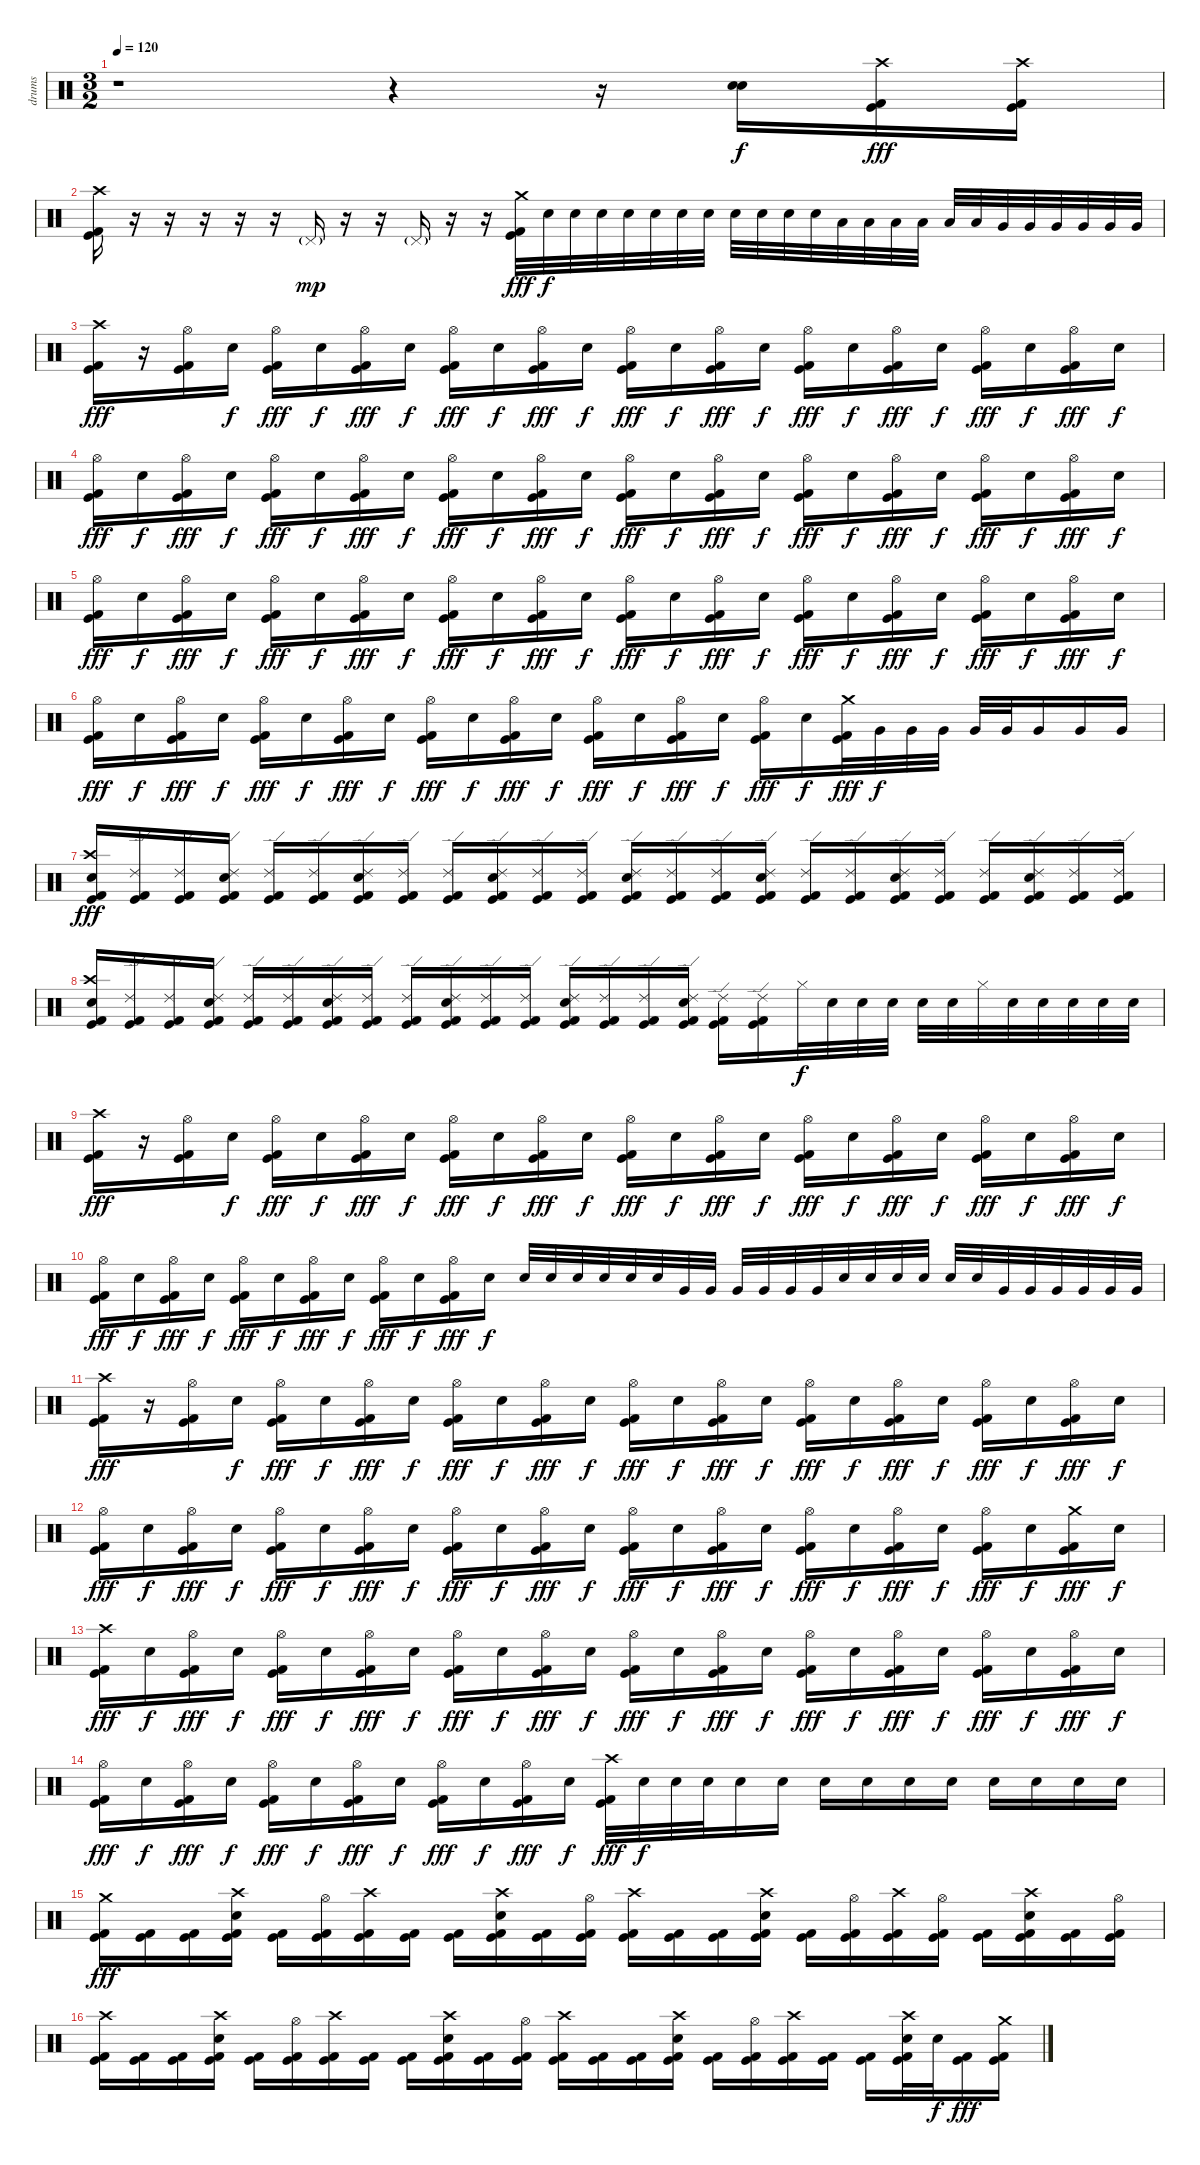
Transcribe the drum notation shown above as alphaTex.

\track ("drums" "drums") {instrument percussion}
\staff {score}
\articulation defaults
\ts (3 2)
\tempo 120
\clef neutral
\ks c
r.1{dy f} r.4 r.16 ("Electric Snare (hit)" "Electric Snare (hit)").16{bu 60} ("Crash high (hit)" "Kick (hit)" "Kick (hit) 2").16{dy fff} ("Crash high (hit)" "Kick (hit)" "Kick (hit) 2").16 |
("Crash high (hit)" "Kick (hit)" "Kick (hit) 2").16 r.16 r.16 r.16 r.16 r.16 "Pedal Hi-Hat (hit)"{g}.16{dy mp} r.16 r.16 "Pedal Hi-Hat (hit)"{g}.16 r.16 r.16 ("Crash medium (hit)" "Kick (hit)" "Kick (hit) 2").32{dy fff} "Electric Snare (hit)".32{dy f} "Electric Snare (hit)".32 "Electric Snare (hit)".32 "Electric Snare (hit)".32 "Electric Snare (hit)".32 "Electric Snare (hit)".32 "Electric Snare (hit)".32 "Electric Snare (hit)".32 "Electric Snare (hit)".32 "Electric Snare (hit)".32 "Electric Snare (hit)".32 "Low Tom (hit)".32 "Low Tom (hit)".32 "Low Tom (hit)".32 "Low Tom (hit)".32 "Low Tom (hit)".32 "Low Tom (hit)".32 "Very Low Tom (hit)".32 "Very Low Tom (hit)".32 "Very Low Tom (hit)".32 "Very Low Tom (hit)".32 "Very Low Tom (hit)".32 "Very Low Tom (hit)".32 |
("Crash high (hit)" "Kick (hit)" "Kick (hit) 2").16{dy fff} r.16 ("Hi-Hat (open)" "Kick (hit)" "Kick (hit) 2").16 "Electric Snare (hit)".16{dy f} ("Hi-Hat (open)" "Kick (hit)" "Kick (hit) 2").16{dy fff} "Electric Snare (hit)".16{dy f} ("Hi-Hat (open)" "Kick (hit)" "Kick (hit) 2").16{dy fff} "Electric Snare (hit)".16{dy f} ("Hi-Hat (open)" "Kick (hit)" "Kick (hit) 2").16{dy fff} "Electric Snare (hit)".16{dy f} ("Hi-Hat (open)" "Kick (hit)" "Kick (hit) 2").16{dy fff} "Electric Snare (hit)".16{dy f} ("Hi-Hat (open)" "Kick (hit)" "Kick (hit) 2").16{dy fff} "Electric Snare (hit)".16{dy f} ("Hi-Hat (open)" "Kick (hit)" "Kick (hit) 2").16{dy fff} "Electric Snare (hit)".16{dy f} ("Hi-Hat (open)" "Kick (hit)" "Kick (hit) 2").16{dy fff} "Electric Snare (hit)".16{dy f} ("Hi-Hat (open)" "Kick (hit)" "Kick (hit) 2").16{dy fff} "Electric Snare (hit)".16{dy f} ("Hi-Hat (open)" "Kick (hit)" "Kick (hit) 2").16{dy fff} "Electric Snare (hit)".16{dy f} ("Hi-Hat (open)" "Kick (hit)" "Kick (hit) 2").16{dy fff} "Electric Snare (hit)".16{dy f} |
("Hi-Hat (open)" "Kick (hit)" "Kick (hit) 2").16{dy fff} "Electric Snare (hit)".16{dy f} ("Hi-Hat (open)" "Kick (hit)" "Kick (hit) 2").16{dy fff} "Electric Snare (hit)".16{dy f} ("Hi-Hat (open)" "Kick (hit)" "Kick (hit) 2").16{dy fff} "Electric Snare (hit)".16{dy f} ("Hi-Hat (open)" "Kick (hit)" "Kick (hit) 2").16{dy fff} "Electric Snare (hit)".16{dy f} ("Hi-Hat (open)" "Kick (hit)" "Kick (hit) 2").16{dy fff} "Electric Snare (hit)".16{dy f} ("Hi-Hat (open)" "Kick (hit)" "Kick (hit) 2").16{dy fff} "Electric Snare (hit)".16{dy f} ("Hi-Hat (open)" "Kick (hit)" "Kick (hit) 2").16{dy fff} "Electric Snare (hit)".16{dy f} ("Hi-Hat (open)" "Kick (hit)" "Kick (hit) 2").16{dy fff} "Electric Snare (hit)".16{dy f} ("Hi-Hat (open)" "Kick (hit)" "Kick (hit) 2").16{dy fff} "Electric Snare (hit)".16{dy f} ("Hi-Hat (open)" "Kick (hit)" "Kick (hit) 2").16{dy fff} "Electric Snare (hit)".16{dy f} ("Hi-Hat (open)" "Kick (hit)" "Kick (hit) 2").16{dy fff} "Electric Snare (hit)".16{dy f} ("Hi-Hat (open)" "Kick (hit)" "Kick (hit) 2").16{dy fff} "Electric Snare (hit)".16{dy f} |
("Hi-Hat (open)" "Kick (hit)" "Kick (hit) 2").16{dy fff} "Electric Snare (hit)".16{dy f} ("Hi-Hat (open)" "Kick (hit)" "Kick (hit) 2").16{dy fff} "Electric Snare (hit)".16{dy f} ("Hi-Hat (open)" "Kick (hit)" "Kick (hit) 2").16{dy fff} "Electric Snare (hit)".16{dy f} ("Hi-Hat (open)" "Kick (hit)" "Kick (hit) 2").16{dy fff} "Electric Snare (hit)".16{dy f} ("Hi-Hat (open)" "Kick (hit)" "Kick (hit) 2").16{dy fff} "Electric Snare (hit)".16{dy f} ("Hi-Hat (open)" "Kick (hit)" "Kick (hit) 2").16{dy fff} "Electric Snare (hit)".16{dy f} ("Hi-Hat (open)" "Kick (hit)" "Kick (hit) 2").16{dy fff} "Electric Snare (hit)".16{dy f} ("Hi-Hat (open)" "Kick (hit)" "Kick (hit) 2").16{dy fff} "Electric Snare (hit)".16{dy f} ("Hi-Hat (open)" "Kick (hit)" "Kick (hit) 2").16{dy fff} "Electric Snare (hit)".16{dy f} ("Hi-Hat (open)" "Kick (hit)" "Kick (hit) 2").16{dy fff} "Electric Snare (hit)".16{dy f} ("Hi-Hat (open)" "Kick (hit)" "Kick (hit) 2").16{dy fff} "Electric Snare (hit)".16{dy f} ("Hi-Hat (open)" "Kick (hit)" "Kick (hit) 2").16{dy fff} "Electric Snare (hit)".16{dy f} |
("Hi-Hat (open)" "Kick (hit)" "Kick (hit) 2").16{dy fff} "Electric Snare (hit)".16{dy f} ("Hi-Hat (open)" "Kick (hit)" "Kick (hit) 2").16{dy fff} "Electric Snare (hit)".16{dy f} ("Hi-Hat (open)" "Kick (hit)" "Kick (hit) 2").16{dy fff} "Electric Snare (hit)".16{dy f} ("Hi-Hat (open)" "Kick (hit)" "Kick (hit) 2").16{dy fff} "Electric Snare (hit)".16{dy f} ("Hi-Hat (open)" "Kick (hit)" "Kick (hit) 2").16{dy fff} "Electric Snare (hit)".16{dy f} ("Hi-Hat (open)" "Kick (hit)" "Kick (hit) 2").16{dy fff} "Electric Snare (hit)".16{dy f} ("Hi-Hat (open)" "Kick (hit)" "Kick (hit) 2").16{dy fff} "Electric Snare (hit)".16{dy f} ("Hi-Hat (open)" "Kick (hit)" "Kick (hit) 2").16{dy fff} "Electric Snare (hit)".16{dy f} ("Hi-Hat (open)" "Kick (hit)" "Kick (hit) 2").16{dy fff} "Electric Snare (hit)".16{dy f} ("Crash medium (hit)" "Kick (hit)" "Kick (hit) 2").32{dy fff} "Very Low Tom (hit)".32{dy f} "Very Low Tom (hit)".32 "Very Low Tom (hit)".32 "Very Low Tom (hit)".32 "Very Low Tom (hit)".32 "Very Low Tom (hit)".16 "Very Low Tom (hit)".16 "Very Low Tom (hit)".16 |
("Crash high (hit)" "Electric Snare (hit)" "Kick (hit)" "Kick (hit) 2").16{dy fff} ("Ride (edge) 2" "Kick (hit)" "Kick (hit) 2").16 ("Ride (edge) 2" "Kick (hit)" "Kick (hit) 2").16 ("Ride (edge) 2" "Electric Snare (hit)" "Kick (hit)" "Kick (hit) 2").16 ("Ride (edge) 2" "Kick (hit)" "Kick (hit) 2").16 ("Ride (edge) 2" "Kick (hit)" "Kick (hit) 2").16 ("Ride (edge) 2" "Electric Snare (hit)" "Kick (hit)" "Kick (hit) 2").16 ("Ride (edge) 2" "Kick (hit)" "Kick (hit) 2").16 ("Ride (edge) 2" "Kick (hit)" "Kick (hit) 2").16 ("Ride (edge) 2" "Electric Snare (hit)" "Kick (hit)" "Kick (hit) 2").16 ("Ride (edge) 2" "Kick (hit)" "Kick (hit) 2").16 ("Ride (edge) 2" "Kick (hit)" "Kick (hit) 2").16 ("Ride (edge) 2" "Electric Snare (hit)" "Kick (hit)" "Kick (hit) 2").16 ("Ride (edge) 2" "Kick (hit)" "Kick (hit) 2").16 ("Ride (edge) 2" "Kick (hit)" "Kick (hit) 2").16 ("Ride (edge) 2" "Electric Snare (hit)" "Kick (hit)" "Kick (hit) 2").16 ("Ride (edge) 2" "Kick (hit)" "Kick (hit) 2").16 ("Ride (edge) 2" "Kick (hit)" "Kick (hit) 2").16 ("Ride (edge) 2" "Electric Snare (hit)" "Kick (hit)" "Kick (hit) 2").16 ("Ride (edge) 2" "Kick (hit)" "Kick (hit) 2").16 ("Ride (edge) 2" "Kick (hit)" "Kick (hit) 2").16 ("Ride (edge) 2" "Electric Snare (hit)" "Kick (hit)" "Kick (hit) 2").16 ("Ride (edge) 2" "Kick (hit)" "Kick (hit) 2").16 ("Ride (edge) 2" "Kick (hit)" "Kick (hit) 2").16 |
("Crash high (hit)" "Electric Snare (hit)" "Kick (hit)" "Kick (hit) 2").16 ("Ride (edge) 2" "Kick (hit)" "Kick (hit) 2").16 ("Ride (edge) 2" "Kick (hit)" "Kick (hit) 2").16 ("Ride (edge) 2" "Electric Snare (hit)" "Kick (hit)" "Kick (hit) 2").16 ("Ride (edge) 2" "Kick (hit)" "Kick (hit) 2").16 ("Ride (edge) 2" "Kick (hit)" "Kick (hit) 2").16 ("Ride (edge) 2" "Electric Snare (hit)" "Kick (hit)" "Kick (hit) 2").16 ("Ride (edge) 2" "Kick (hit)" "Kick (hit) 2").16 ("Ride (edge) 2" "Kick (hit)" "Kick (hit) 2").16 ("Ride (edge) 2" "Electric Snare (hit)" "Kick (hit)" "Kick (hit) 2").16 ("Ride (edge) 2" "Kick (hit)" "Kick (hit) 2").16 ("Ride (edge) 2" "Kick (hit)" "Kick (hit) 2").16 ("Ride (edge) 2" "Electric Snare (hit)" "Kick (hit)" "Kick (hit) 2").16 ("Ride (edge) 2" "Kick (hit)" "Kick (hit) 2").16 ("Ride (edge) 2" "Kick (hit)" "Kick (hit) 2").16 ("Ride (edge) 2" "Electric Snare (hit)" "Kick (hit)" "Kick (hit) 2").16 ("Ride (edge) 2" "Kick (hit)" "Kick (hit) 2").16 ("Ride (edge) 2" "Kick (hit)" "Kick (hit) 2").16 "Hi-Hat (closed)".32{dy f} "Electric Snare (hit)".32 "Electric Snare (hit)".32 "Electric Snare (hit)".32 "Electric Snare (hit)".32 "Electric Snare (hit)".32 "Hi-Hat (closed)".32 "Electric Snare (hit)".32 "Electric Snare (hit)".32 "Electric Snare (hit)".32 "Electric Snare (hit)".32 "Electric Snare (hit)".32 |
("Crash high (hit)" "Kick (hit)" "Kick (hit) 2").16{dy fff} r.16 ("Hi-Hat (open)" "Kick (hit)" "Kick (hit) 2").16 "Electric Snare (hit)".16{dy f} ("Hi-Hat (open)" "Kick (hit)" "Kick (hit) 2").16{dy fff} "Electric Snare (hit)".16{dy f} ("Hi-Hat (open)" "Kick (hit)" "Kick (hit) 2").16{dy fff} "Electric Snare (hit)".16{dy f} ("Hi-Hat (open)" "Kick (hit)" "Kick (hit) 2").16{dy fff} "Electric Snare (hit)".16{dy f} ("Hi-Hat (open)" "Kick (hit)" "Kick (hit) 2").16{dy fff} "Electric Snare (hit)".16{dy f} ("Hi-Hat (open)" "Kick (hit)" "Kick (hit) 2").16{dy fff} "Electric Snare (hit)".16{dy f} ("Hi-Hat (open)" "Kick (hit)" "Kick (hit) 2").16{dy fff} "Electric Snare (hit)".16{dy f} ("Hi-Hat (open)" "Kick (hit)" "Kick (hit) 2").16{dy fff} "Electric Snare (hit)".16{dy f} ("Hi-Hat (open)" "Kick (hit)" "Kick (hit) 2").16{dy fff} "Electric Snare (hit)".16{dy f} ("Hi-Hat (open)" "Kick (hit)" "Kick (hit) 2").16{dy fff} "Electric Snare (hit)".16{dy f} ("Hi-Hat (open)" "Kick (hit)" "Kick (hit) 2").16{dy fff} "Electric Snare (hit)".16{dy f} |
("Hi-Hat (open)" "Kick (hit)" "Kick (hit) 2").16{dy fff} "Electric Snare (hit)".16{dy f} ("Hi-Hat (open)" "Kick (hit)" "Kick (hit) 2").16{dy fff} "Electric Snare (hit)".16{dy f} ("Hi-Hat (open)" "Kick (hit)" "Kick (hit) 2").16{dy fff} "Electric Snare (hit)".16{dy f} ("Hi-Hat (open)" "Kick (hit)" "Kick (hit) 2").16{dy fff} "Electric Snare (hit)".16{dy f} ("Hi-Hat (open)" "Kick (hit)" "Kick (hit) 2").16{dy fff} "Electric Snare (hit)".16{dy f} ("Hi-Hat (open)" "Kick (hit)" "Kick (hit) 2").16{dy fff} "Electric Snare (hit)".16{dy f} "Electric Snare (hit)".32 "Electric Snare (hit)".32 "Electric Snare (hit)".32 "Electric Snare (hit)".32 "Electric Snare (hit)".32 "Electric Snare (hit)".32 "Very Low Tom (hit)".32 "Very Low Tom (hit)".32 "Very Low Tom (hit)".32 "Very Low Tom (hit)".32 "Very Low Tom (hit)".32 "Very Low Tom (hit)".32 "Electric Snare (hit)".32 "Electric Snare (hit)".32 "Electric Snare (hit)".32 "Electric Snare (hit)".32 "Electric Snare (hit)".32 "Electric Snare (hit)".32 "Very Low Tom (hit)".32 "Very Low Tom (hit)".32 "Very Low Tom (hit)".32 "Very Low Tom (hit)".32 "Very Low Tom (hit)".32 "Very Low Tom (hit)".32 |
("Crash high (hit)" "Kick (hit)" "Kick (hit) 2").16{dy fff} r.16 ("Hi-Hat (open)" "Kick (hit)" "Kick (hit) 2").16 "Electric Snare (hit)".16{dy f} ("Hi-Hat (open)" "Kick (hit)" "Kick (hit) 2").16{dy fff} "Electric Snare (hit)".16{dy f} ("Hi-Hat (open)" "Kick (hit)" "Kick (hit) 2").16{dy fff} "Electric Snare (hit)".16{dy f} ("Hi-Hat (open)" "Kick (hit)" "Kick (hit) 2").16{dy fff} "Electric Snare (hit)".16{dy f} ("Hi-Hat (open)" "Kick (hit)" "Kick (hit) 2").16{dy fff} "Electric Snare (hit)".16{dy f} ("Hi-Hat (open)" "Kick (hit)" "Kick (hit) 2").16{dy fff} "Electric Snare (hit)".16{dy f} ("Hi-Hat (open)" "Kick (hit)" "Kick (hit) 2").16{dy fff} "Electric Snare (hit)".16{dy f} ("Hi-Hat (open)" "Kick (hit)" "Kick (hit) 2").16{dy fff} "Electric Snare (hit)".16{dy f} ("Hi-Hat (open)" "Kick (hit)" "Kick (hit) 2").16{dy fff} "Electric Snare (hit)".16{dy f} ("Hi-Hat (open)" "Kick (hit)" "Kick (hit) 2").16{dy fff} "Electric Snare (hit)".16{dy f} ("Hi-Hat (open)" "Kick (hit)" "Kick (hit) 2").16{dy fff} "Electric Snare (hit)".16{dy f} |
("Hi-Hat (open)" "Kick (hit)" "Kick (hit) 2").16{dy fff} "Electric Snare (hit)".16{dy f} ("Hi-Hat (open)" "Kick (hit)" "Kick (hit) 2").16{dy fff} "Electric Snare (hit)".16{dy f} ("Hi-Hat (open)" "Kick (hit)" "Kick (hit) 2").16{dy fff} "Electric Snare (hit)".16{dy f} ("Hi-Hat (open)" "Kick (hit)" "Kick (hit) 2").16{dy fff} "Electric Snare (hit)".16{dy f} ("Hi-Hat (open)" "Kick (hit)" "Kick (hit) 2").16{dy fff} "Electric Snare (hit)".16{dy f} ("Hi-Hat (open)" "Kick (hit)" "Kick (hit) 2").16{dy fff} "Electric Snare (hit)".16{dy f} ("Hi-Hat (open)" "Kick (hit)" "Kick (hit) 2").16{dy fff} "Electric Snare (hit)".16{dy f} ("Hi-Hat (open)" "Kick (hit)" "Kick (hit) 2").16{dy fff} "Electric Snare (hit)".16{dy f} ("Hi-Hat (open)" "Kick (hit)" "Kick (hit) 2").16{dy fff} "Electric Snare (hit)".16{dy f} ("Hi-Hat (open)" "Kick (hit)" "Kick (hit) 2").16{dy fff} "Electric Snare (hit)".16{dy f} ("Hi-Hat (open)" "Kick (hit)" "Kick (hit) 2").16{dy fff} "Electric Snare (hit)".16{dy f} ("Crash medium (hit)" "Kick (hit)" "Kick (hit) 2").16{dy fff} "Electric Snare (hit)".16{dy f} |
("Crash high (hit)" "Kick (hit)" "Kick (hit) 2").16{dy fff} "Electric Snare (hit)".16{dy f} ("Hi-Hat (open)" "Kick (hit)" "Kick (hit) 2").16{dy fff} "Electric Snare (hit)".16{dy f} ("Hi-Hat (open)" "Kick (hit)" "Kick (hit) 2").16{dy fff} "Electric Snare (hit)".16{dy f} ("Hi-Hat (open)" "Kick (hit)" "Kick (hit) 2").16{dy fff} "Electric Snare (hit)".16{dy f} ("Hi-Hat (open)" "Kick (hit)" "Kick (hit) 2").16{dy fff} "Electric Snare (hit)".16{dy f} ("Hi-Hat (open)" "Kick (hit)" "Kick (hit) 2").16{dy fff} "Electric Snare (hit)".16{dy f} ("Hi-Hat (open)" "Kick (hit)" "Kick (hit) 2").16{dy fff} "Electric Snare (hit)".16{dy f} ("Hi-Hat (open)" "Kick (hit)" "Kick (hit) 2").16{dy fff} "Electric Snare (hit)".16{dy f} ("Hi-Hat (open)" "Kick (hit)" "Kick (hit) 2").16{dy fff} "Electric Snare (hit)".16{dy f} ("Hi-Hat (open)" "Kick (hit)" "Kick (hit) 2").16{dy fff} "Electric Snare (hit)".16{dy f} ("Hi-Hat (open)" "Kick (hit)" "Kick (hit) 2").16{dy fff} "Electric Snare (hit)".16{dy f} ("Hi-Hat (open)" "Kick (hit)" "Kick (hit) 2").16{dy fff} "Electric Snare (hit)".16{dy f} |
("Hi-Hat (open)" "Kick (hit)" "Kick (hit) 2").16{dy fff} "Electric Snare (hit)".16{dy f} ("Hi-Hat (open)" "Kick (hit)" "Kick (hit) 2").16{dy fff} "Electric Snare (hit)".16{dy f} ("Hi-Hat (open)" "Kick (hit)" "Kick (hit) 2").16{dy fff} "Electric Snare (hit)".16{dy f} ("Hi-Hat (open)" "Kick (hit)" "Kick (hit) 2").16{dy fff} "Electric Snare (hit)".16{dy f} ("Hi-Hat (open)" "Kick (hit)" "Kick (hit) 2").16{dy fff} "Electric Snare (hit)".16{dy f} ("Hi-Hat (open)" "Kick (hit)" "Kick (hit) 2").16{dy fff} "Electric Snare (hit)".16{dy f} ("Crash high (hit)" "Kick (hit)" "Kick (hit) 2").32{dy fff} "Electric Snare (hit)".32{dy f} "Electric Snare (hit)".32 "Electric Snare (hit)".32 "Electric Snare (hit)".16 "Electric Snare (hit)".16 "Electric Snare (hit)".16 "Electric Snare (hit)".16 "Electric Snare (hit)".16 "Electric Snare (hit)".16 "Electric Snare (hit)".16 "Electric Snare (hit)".16 "Electric Snare (hit)".16 "Electric Snare (hit)".16 |
("Crash medium (hit)" "Kick (hit)" "Kick (hit) 2").16{dy fff} ("Kick (hit)" "Kick (hit) 2").16 ("Kick (hit)" "Kick (hit) 2").16 ("Crash high (hit)" "Electric Snare (hit)" "Kick (hit)" "Kick (hit) 2").16 ("Kick (hit)" "Kick (hit) 2").16 ("Hi-Hat (open)" "Kick (hit)" "Kick (hit) 2").16 ("Crash high (hit)" "Kick (hit)" "Kick (hit) 2").16 ("Kick (hit)" "Kick (hit) 2").16 ("Kick (hit)" "Kick (hit) 2").16 ("Crash high (hit)" "Electric Snare (hit)" "Kick (hit)" "Kick (hit) 2").16 ("Kick (hit)" "Kick (hit) 2").16 ("Hi-Hat (open)" "Kick (hit)" "Kick (hit) 2").16 ("Crash high (hit)" "Kick (hit)" "Kick (hit) 2").16 ("Kick (hit)" "Kick (hit) 2").16 ("Kick (hit)" "Kick (hit) 2").16 ("Crash high (hit)" "Electric Snare (hit)" "Kick (hit)" "Kick (hit) 2").16 ("Kick (hit)" "Kick (hit) 2").16 ("Hi-Hat (open)" "Kick (hit)" "Kick (hit) 2").16 ("Crash high (hit)" "Kick (hit)" "Kick (hit) 2").16 ("Hi-Hat (open)" "Kick (hit)" "Kick (hit) 2").16 ("Kick (hit)" "Kick (hit) 2").16 ("Crash high (hit)" "Electric Snare (hit)" "Kick (hit)" "Kick (hit) 2").16 ("Kick (hit)" "Kick (hit) 2").16 ("Hi-Hat (open)" "Kick (hit)" "Kick (hit) 2").16 |
("Crash high (hit)" "Kick (hit)" "Kick (hit) 2").16 ("Kick (hit)" "Kick (hit) 2").16 ("Kick (hit)" "Kick (hit) 2").16 ("Crash high (hit)" "Electric Snare (hit)" "Kick (hit)" "Kick (hit) 2").16 ("Kick (hit)" "Kick (hit) 2").16 ("Hi-Hat (open)" "Kick (hit)" "Kick (hit) 2").16 ("Crash high (hit)" "Kick (hit)" "Kick (hit) 2").16 ("Kick (hit)" "Kick (hit) 2").16 ("Kick (hit)" "Kick (hit) 2").16 ("Crash high (hit)" "Electric Snare (hit)" "Kick (hit)" "Kick (hit) 2").16 ("Kick (hit)" "Kick (hit) 2").16 ("Hi-Hat (open)" "Kick (hit)" "Kick (hit) 2").16 ("Crash high (hit)" "Kick (hit)" "Kick (hit) 2").16 ("Kick (hit)" "Kick (hit) 2").16 ("Kick (hit)" "Kick (hit) 2").16 ("Crash high (hit)" "Electric Snare (hit)" "Kick (hit)" "Kick (hit) 2").16 ("Kick (hit)" "Kick (hit) 2").16 ("Hi-Hat (open)" "Kick (hit)" "Kick (hit) 2").16 ("Crash high (hit)" "Kick (hit)" "Kick (hit) 2").16 ("Kick (hit)" "Kick (hit) 2").16 ("Kick (hit)" "Kick (hit) 2").16 ("Crash high (hit)" "Electric Snare (hit)" "Kick (hit)" "Kick (hit) 2").32 "Electric Snare (hit)".32{dy f} ("Kick (hit)" "Kick (hit) 2").16{dy fff} ("Crash medium (hit)" "Kick (hit)" "Kick (hit) 2").16
